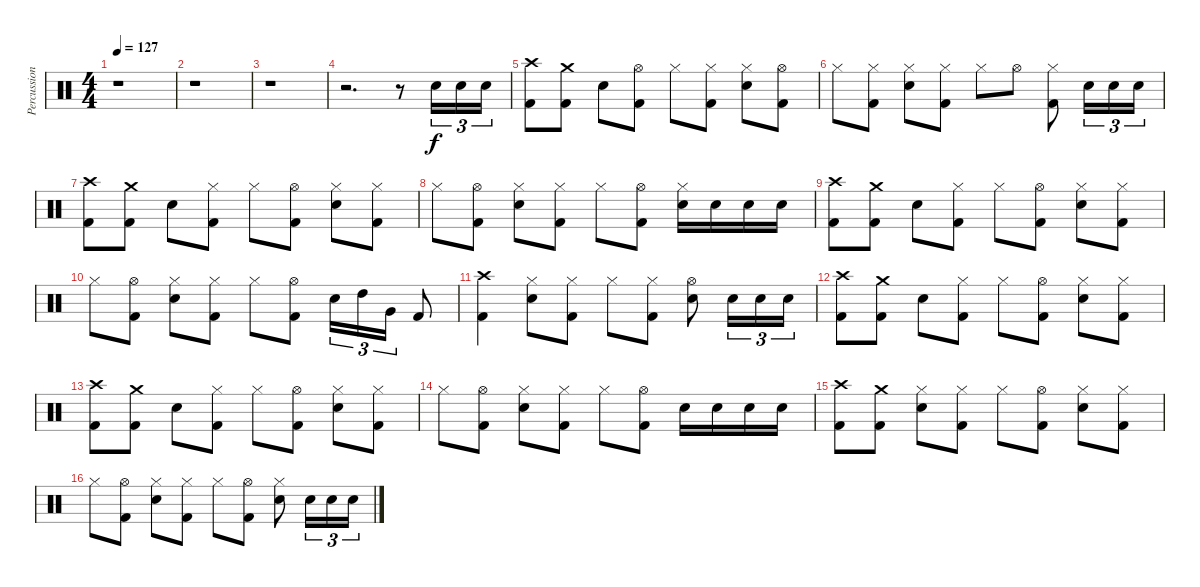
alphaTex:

\track ("Percussion" "Percussion") {instrument percussion}
\staff {score}
\articulation defaults
\ts (4 4)
\tempo 127
\clef neutral
\ks c
r.1{dy f} |
r.1 |
r.1 |
r.2{d} r.8 "Snare (hit) 2".16{tu (3 2)} "Snare (hit) 2".16{tu (3 2)} "Snare (hit) 2".16{tu (3 2)} |
("Kick (hit) 2" "Crash high (hit)").8 ("Kick (hit) 2" "Crash medium (hit)").8 "Snare (hit) 2".8 ("Kick (hit) 2" "Hi-Hat (open)").8 "Hi-Hat (closed)".8 ("Kick (hit) 2" "Hi-Hat (closed)").8 ("Snare (hit) 2" "Hi-Hat (closed)").8 ("Kick (hit) 2" "Hi-Hat (open)").8 |
"Hi-Hat (closed)".8 ("Kick (hit) 2" "Hi-Hat (closed)").8 ("Snare (hit) 2" "Hi-Hat (closed)").8 ("Kick (hit) 2" "Hi-Hat (closed)").8 "Hi-Hat (closed)".8 "Hi-Hat (open)".8 ("Kick (hit) 2" "Hi-Hat (closed)").8 "Snare (hit) 2".16{tu (3 2)} "Snare (hit) 2".16{tu (3 2)} "Snare (hit) 2".16{tu (3 2)} |
("Kick (hit) 2" "Crash high (hit)").8 ("Kick (hit) 2" "Crash medium (hit)").8 "Snare (hit) 2".8 ("Kick (hit) 2" "Hi-Hat (closed)").8 "Hi-Hat (closed)".8 ("Kick (hit) 2" "Hi-Hat (open)").8 ("Snare (hit) 2" "Hi-Hat (closed)").8 ("Kick (hit) 2" "Hi-Hat (closed)").8 |
"Hi-Hat (closed)".8 ("Kick (hit) 2" "Hi-Hat (open)").8 ("Snare (hit) 2" "Hi-Hat (closed)").8 ("Kick (hit) 2" "Hi-Hat (closed)").8 "Hi-Hat (closed)".8 ("Kick (hit) 2" "Hi-Hat (open)").8 ("Snare (hit) 2" "Hi-Hat (closed)").16 "Snare (hit) 2".16 "Snare (hit) 2".16 "Snare (hit) 2".16 |
("Kick (hit) 2" "Crash high (hit)").8 ("Kick (hit) 2" "Crash medium (hit)").8 "Snare (hit) 2".8 ("Kick (hit) 2" "Hi-Hat (closed)").8 "Hi-Hat (closed)".8 ("Kick (hit) 2" "Hi-Hat (open)").8 ("Snare (hit) 2" "Hi-Hat (closed)").8 ("Kick (hit) 2" "Hi-Hat (closed)").8 |
"Hi-Hat (closed)".8 ("Kick (hit) 2" "Hi-Hat (open)").8 ("Snare (hit) 2" "Hi-Hat (closed)").8 ("Kick (hit) 2" "Hi-Hat (closed)").8 "Hi-Hat (closed)".8 ("Kick (hit) 2" "Hi-Hat (open)").8 "Snare (hit) 2".16{tu (3 2)} "High Tom (hit)".16{tu (3 2)} "Very Low Tom (hit)".16{tu (3 2)} "Kick (hit) 2".8 |
("Kick (hit) 2" "Crash high (hit)").4 ("Snare (hit) 2" "Hi-Hat (closed)").8 ("Kick (hit) 2" "Hi-Hat (closed)").8 "Hi-Hat (closed)".8 ("Kick (hit) 2" "Hi-Hat (closed)").8 ("Snare (hit) 2" "Hi-Hat (open)").8 "Snare (hit) 2".16{tu (3 2)} "Snare (hit) 2".16{tu (3 2)} "Snare (hit) 2".16{tu (3 2)} |
("Kick (hit) 2" "Crash high (hit)").8 ("Kick (hit) 2" "Crash medium (hit)").8 "Snare (hit) 2".8 ("Kick (hit) 2" "Hi-Hat (closed)").8 "Hi-Hat (closed)".8 ("Kick (hit) 2" "Hi-Hat (open)").8 ("Snare (hit) 2" "Hi-Hat (closed)").8 ("Kick (hit) 2" "Hi-Hat (closed)").8 |
("Kick (hit) 2" "Crash high (hit)").8 ("Kick (hit) 2" "Crash medium (hit)").8 "Snare (hit) 2".8 ("Kick (hit) 2" "Hi-Hat (closed)").8 "Hi-Hat (closed)".8 ("Kick (hit) 2" "Hi-Hat (open)").8 ("Snare (hit) 2" "Hi-Hat (closed)").8 ("Kick (hit) 2" "Hi-Hat (closed)").8 |
"Hi-Hat (closed)".8 ("Kick (hit) 2" "Hi-Hat (open)").8 ("Snare (hit) 2" "Hi-Hat (closed)").8 ("Kick (hit) 2" "Hi-Hat (closed)").8 "Hi-Hat (closed)".8 ("Kick (hit) 2" "Hi-Hat (open)").8 "Snare (hit) 2".16 "Snare (hit) 2".16 "Snare (hit) 2".16 "Snare (hit) 2".16 |
("Kick (hit) 2" "Crash high (hit)").8 ("Kick (hit) 2" "Crash medium (hit)").8 ("Snare (hit) 2" "Hi-Hat (closed)").8 ("Kick (hit) 2" "Hi-Hat (closed)").8 "Hi-Hat (closed)".8 ("Kick (hit) 2" "Hi-Hat (open)").8 ("Snare (hit) 2" "Hi-Hat (closed)").8 ("Kick (hit) 2" "Hi-Hat (closed)").8 |
"Hi-Hat (closed)".8 ("Kick (hit) 2" "Hi-Hat (open)").8 ("Snare (hit) 2" "Hi-Hat (closed)").8 ("Kick (hit) 2" "Hi-Hat (closed)").8 "Hi-Hat (closed)".8 ("Kick (hit) 2" "Hi-Hat (open)").8 ("Snare (hit) 2" "Hi-Hat (closed)").8 "Snare (hit) 2".16{tu (3 2)} "Snare (hit) 2".16{tu (3 2)} "Snare (hit) 2".16{tu (3 2)}
